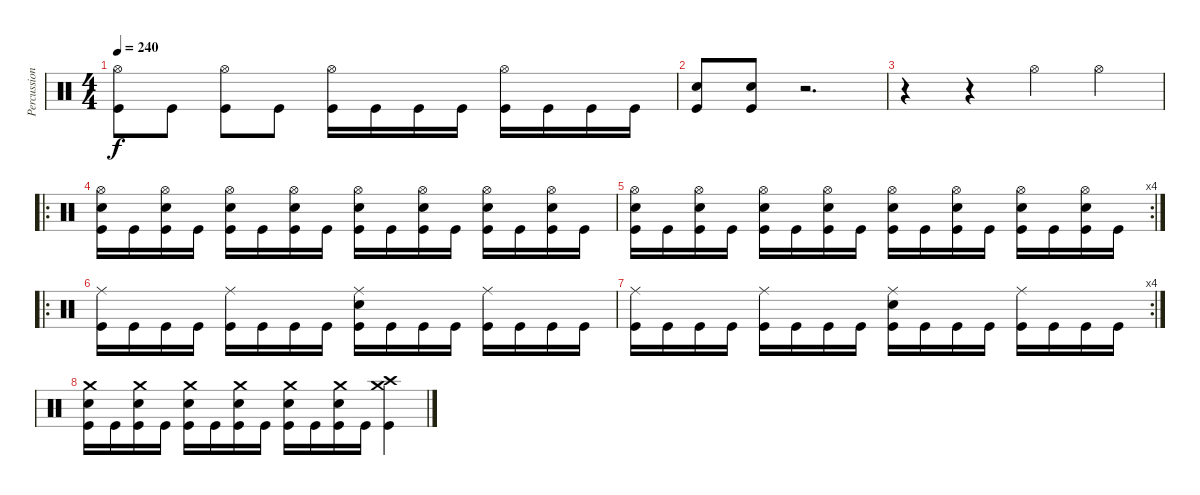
\track ("Percussion" "Percussion") {instrument percussion}
\staff {score}
\articulation defaults
\ts (4 4)
\tempo 240
\clef neutral
\ks c
("Hi-Hat (open)" "Kick (hit)").8{dy f} "Kick (hit)".8 ("Hi-Hat (open)" "Kick (hit)").8 "Kick (hit)".8 ("Hi-Hat (open)" "Kick (hit)").16 "Kick (hit)".16 "Kick (hit)".16 "Kick (hit)".16 ("Hi-Hat (open)" "Kick (hit)").16 "Kick (hit)".16 "Kick (hit)".16 "Kick (hit)".16 |
("Snare (hit) 2" "Kick (hit)").8 ("Snare (hit) 2" "Kick (hit)").8 r.2{d} |
r.4 r.4 "Hi-Hat (open)".4 "Hi-Hat (open)".4 |
\ro
("Hi-Hat (open)" "Snare (hit) 2" "Kick (hit)").16 "Kick (hit)".16 ("Hi-Hat (open)" "Snare (hit) 2" "Kick (hit)").16 "Kick (hit)".16 ("Hi-Hat (open)" "Snare (hit) 2" "Kick (hit)").16 "Kick (hit)".16 ("Hi-Hat (open)" "Snare (hit) 2" "Kick (hit)").16 "Kick (hit)".16 ("Hi-Hat (open)" "Snare (hit) 2" "Kick (hit)").16 "Kick (hit)".16 ("Hi-Hat (open)" "Snare (hit) 2" "Kick (hit)").16 "Kick (hit)".16 ("Hi-Hat (open)" "Snare (hit) 2" "Kick (hit)").16 "Kick (hit)".16 ("Hi-Hat (open)" "Snare (hit) 2" "Kick (hit)").16 "Kick (hit)".16 |
\rc 4
("Hi-Hat (open)" "Snare (hit) 2" "Kick (hit)").16 "Kick (hit)".16 ("Hi-Hat (open)" "Snare (hit) 2" "Kick (hit)").16 "Kick (hit)".16 ("Hi-Hat (open)" "Snare (hit) 2" "Kick (hit)").16 "Kick (hit)".16 ("Hi-Hat (open)" "Snare (hit) 2" "Kick (hit)").16 "Kick (hit)".16 ("Hi-Hat (open)" "Snare (hit) 2" "Kick (hit)").16 "Kick (hit)".16 ("Hi-Hat (open)" "Snare (hit) 2" "Kick (hit)").16 "Kick (hit)".16 ("Hi-Hat (open)" "Snare (hit) 2" "Kick (hit)").16 "Kick (hit)".16 ("Hi-Hat (open)" "Snare (hit) 2" "Kick (hit)").16 "Kick (hit)".16 |
\ro
("Ride (middle)" "Kick (hit)").16 "Kick (hit)".16 "Kick (hit)".16 "Kick (hit)".16 ("Ride (middle)" "Kick (hit)").16 "Kick (hit)".16 "Kick (hit)".16 "Kick (hit)".16 ("Ride (middle)" "Snare (hit) 2" "Kick (hit)").16 "Kick (hit)".16 "Kick (hit)".16 "Kick (hit)".16 ("Ride (middle)" "Kick (hit)").16 "Kick (hit)".16 "Kick (hit)".16 "Kick (hit)".16 |
\rc 4
("Ride (middle)" "Kick (hit)").16 "Kick (hit)".16 "Kick (hit)".16 "Kick (hit)".16 ("Ride (middle)" "Kick (hit)").16 "Kick (hit)".16 "Kick (hit)".16 "Kick (hit)".16 ("Ride (middle)" "Snare (hit) 2" "Kick (hit)").16 "Kick (hit)".16 "Kick (hit)".16 "Kick (hit)".16 ("Ride (middle)" "Kick (hit)").16 "Kick (hit)".16 "Kick (hit)".16 "Kick (hit)".16 |
("Crash medium (hit)" "Snare (hit) 2" "Kick (hit)").16 "Kick (hit)".16 ("Crash medium (hit)" "Snare (hit) 2" "Kick (hit)").16 "Kick (hit)".16 ("Crash medium (hit)" "Snare (hit) 2" "Kick (hit)").16 "Kick (hit)".16 ("Crash medium (hit)" "Snare (hit) 2" "Kick (hit)").16 "Kick (hit)".16 ("Crash medium (hit)" "Snare (hit) 2" "Kick (hit)").16 "Kick (hit)".16 ("Crash medium (hit)" "Snare (hit) 2" "Kick (hit)").16 "Kick (hit)".16 ("Crash medium (hit)" "Crash high (hit)" "Kick (hit)").4
